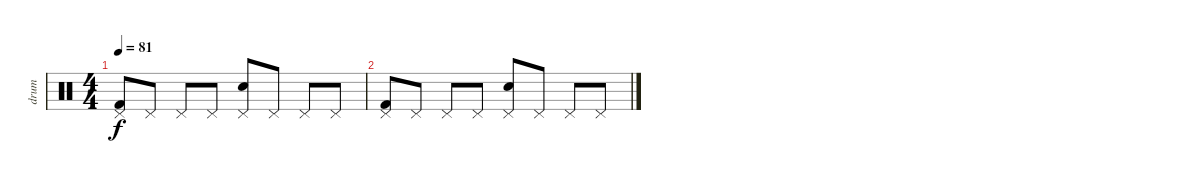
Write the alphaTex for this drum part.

\track ("drum" "drum") {instrument percussion}
\staff {score}
\articulation defaults
\ts (4 4)
\tempo 81
\clef neutral
\ks c
("Pedal Hi-Hat (hit)" "Kick (hit) 2").8{dy f} "Pedal Hi-Hat (hit)".8 "Pedal Hi-Hat (hit)".8 "Pedal Hi-Hat (hit)".8 ("Pedal Hi-Hat (hit)" "Electric Snare (hit)").8 "Pedal Hi-Hat (hit)".8 "Pedal Hi-Hat (hit)".8 "Pedal Hi-Hat (hit)".8 |
("Pedal Hi-Hat (hit)" "Kick (hit) 2").8 "Pedal Hi-Hat (hit)".8 "Pedal Hi-Hat (hit)".8 "Pedal Hi-Hat (hit)".8 ("Pedal Hi-Hat (hit)" "Electric Snare (hit)").8 "Pedal Hi-Hat (hit)".8 "Pedal Hi-Hat (hit)".8 "Pedal Hi-Hat (hit)".8
